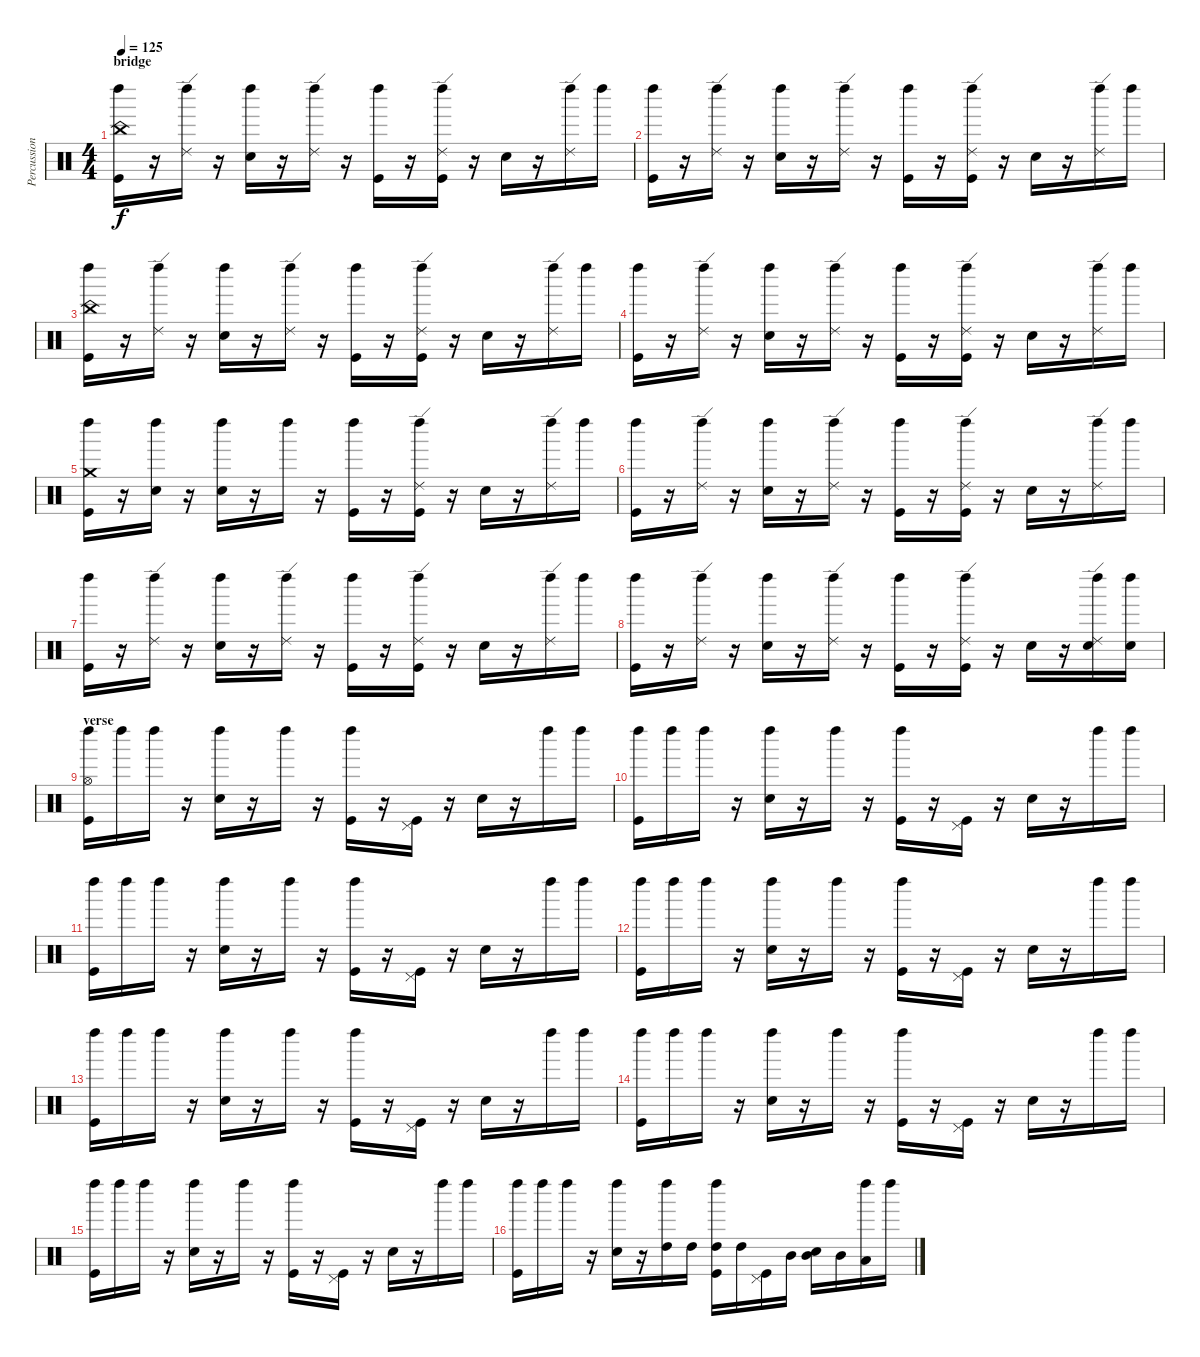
\track ("Percussions" "Percussion") {instrument percussion}
\staff {score}
\articulation defaults
\ts (4 4)
\section ("" "bridge")
\tempo 125
\clef neutral
\ks c
("China (hit)" "Left Maraca (hit)" "Kick (hit)").16{dy f} r.16 ("Ride (edge) 2" "Left Maraca (hit)").16 r.16 ("Left Maraca (hit)" "Snare (hit) 2").16 r.16 ("Ride (edge) 2" "Left Maraca (hit)").16 r.16 ("Left Maraca (hit)" "Kick (hit)").16 r.16 ("Ride (edge) 2" "Left Maraca (hit)" "Kick (hit)").16 r.16 "Snare (hit) 2".16 r.16 ("Ride (edge) 2" "Left Maraca (hit)").16 "Left Maraca (hit)".16 |
("Left Maraca (hit)" "Kick (hit)").16 r.16 ("Ride (edge) 2" "Left Maraca (hit)").16 r.16 ("Left Maraca (hit)" "Snare (hit) 2").16 r.16 ("Ride (edge) 2" "Left Maraca (hit)").16 r.16 ("Left Maraca (hit)" "Kick (hit)").16 r.16 ("Ride (edge) 2" "Left Maraca (hit)" "Kick (hit)").16 r.16 "Snare (hit) 2".16 r.16 ("Ride (edge) 2" "Left Maraca (hit)").16 "Left Maraca (hit)".16 |
("China (hit)" "Left Maraca (hit)" "Kick (hit)").16 r.16 ("Ride (edge) 2" "Left Maraca (hit)").16 r.16 ("Left Maraca (hit)" "Snare (hit) 2").16 r.16 ("Ride (edge) 2" "Left Maraca (hit)").16 r.16 ("Left Maraca (hit)" "Kick (hit)").16 r.16 ("Ride (edge) 2" "Left Maraca (hit)" "Kick (hit)").16 r.16 "Snare (hit) 2".16 r.16 ("Ride (edge) 2" "Left Maraca (hit)").16 "Left Maraca (hit)".16 |
("Left Maraca (hit)" "Kick (hit)").16 r.16 ("Ride (edge) 2" "Left Maraca (hit)").16 r.16 ("Left Maraca (hit)" "Snare (hit) 2").16 r.16 ("Ride (edge) 2" "Left Maraca (hit)").16 r.16 ("Left Maraca (hit)" "Kick (hit)").16 r.16 ("Ride (edge) 2" "Left Maraca (hit)" "Kick (hit)").16 r.16 "Snare (hit) 2".16 r.16 ("Ride (edge) 2" "Left Maraca (hit)").16 "Left Maraca (hit)".16 |
("Crash medium (hit)" "Left Maraca (hit)" "Kick (hit)").16 r.16 ("Snare (hit)" "Left Maraca (hit)").16 r.16 ("Left Maraca (hit)" "Snare (hit) 2").16 r.16 "Left Maraca (hit)".16 r.16 ("Left Maraca (hit)" "Kick (hit)").16 r.16 ("Ride (edge) 2" "Left Maraca (hit)" "Kick (hit)").16 r.16 "Snare (hit) 2".16 r.16 ("Ride (edge) 2" "Left Maraca (hit)").16 "Left Maraca (hit)".16 |
("Left Maraca (hit)" "Kick (hit)").16 r.16 ("Ride (edge) 2" "Left Maraca (hit)").16 r.16 ("Left Maraca (hit)" "Snare (hit) 2").16 r.16 ("Ride (edge) 2" "Left Maraca (hit)").16 r.16 ("Left Maraca (hit)" "Kick (hit)").16 r.16 ("Ride (edge) 2" "Left Maraca (hit)" "Kick (hit)").16 r.16 "Snare (hit) 2".16 r.16 ("Ride (edge) 2" "Left Maraca (hit)").16 "Left Maraca (hit)".16 |
("Left Maraca (hit)" "Kick (hit)").16 r.16 ("Ride (edge) 2" "Left Maraca (hit)").16 r.16 ("Left Maraca (hit)" "Snare (hit) 2").16 r.16 ("Ride (edge) 2" "Left Maraca (hit)").16 r.16 ("Left Maraca (hit)" "Kick (hit)").16 r.16 ("Ride (edge) 2" "Left Maraca (hit)" "Kick (hit)").16 r.16 "Snare (hit) 2".16 r.16 ("Ride (edge) 2" "Left Maraca (hit)").16 "Left Maraca (hit)".16 |
("Left Maraca (hit)" "Kick (hit)").16 r.16 ("Ride (edge) 2" "Left Maraca (hit)").16 r.16 ("Left Maraca (hit)" "Snare (hit) 2").16 r.16 ("Ride (edge) 2" "Left Maraca (hit)").16 r.16 ("Left Maraca (hit)" "Kick (hit)").16 r.16 ("Ride (edge) 2" "Left Maraca (hit)" "Kick (hit)").16 r.16 "Snare (hit) 2".16 r.16 ("Ride (edge) 2" "Left Maraca (hit)" "Snare (hit) 2").16 ("Left Maraca (hit)" "Snare (hit) 2").16 |
\section ("" "verse")
("Hi-Hat (open)" "Left Maraca (hit)" "Kick (hit)").16 "Left Maraca (hit)".16 "Left Maraca (hit)".16 r.16 ("Left Maraca (hit)" "Snare (hit) 2").16 r.16 "Left Maraca (hit)".16 r.16 ("Left Maraca (hit)" "Kick (hit)").16 r.16 ("Pedal Hi-Hat (hit)" "Kick (hit)").16 r.16 "Snare (hit) 2".16 r.16 "Left Maraca (hit)".16 "Left Maraca (hit)".16 |
("Left Maraca (hit)" "Kick (hit)").16 "Left Maraca (hit)".16 "Left Maraca (hit)".16 r.16 ("Left Maraca (hit)" "Snare (hit) 2").16 r.16 "Left Maraca (hit)".16 r.16 ("Left Maraca (hit)" "Kick (hit)").16 r.16 ("Pedal Hi-Hat (hit)" "Kick (hit)").16 r.16 "Snare (hit) 2".16 r.16 "Left Maraca (hit)".16 "Left Maraca (hit)".16 |
("Left Maraca (hit)" "Kick (hit)").16 "Left Maraca (hit)".16 "Left Maraca (hit)".16 r.16 ("Left Maraca (hit)" "Snare (hit) 2").16 r.16 "Left Maraca (hit)".16 r.16 ("Left Maraca (hit)" "Kick (hit)").16 r.16 ("Pedal Hi-Hat (hit)" "Kick (hit)").16 r.16 "Snare (hit) 2".16 r.16 "Left Maraca (hit)".16 "Left Maraca (hit)".16 |
("Left Maraca (hit)" "Kick (hit)").16 "Left Maraca (hit)".16 "Left Maraca (hit)".16 r.16 ("Left Maraca (hit)" "Snare (hit) 2").16 r.16 "Left Maraca (hit)".16 r.16 ("Left Maraca (hit)" "Kick (hit)").16 r.16 ("Pedal Hi-Hat (hit)" "Kick (hit)").16 r.16 "Snare (hit) 2".16 r.16 "Left Maraca (hit)".16 "Left Maraca (hit)".16 |
("Left Maraca (hit)" "Kick (hit)").16 "Left Maraca (hit)".16 "Left Maraca (hit)".16 r.16 ("Left Maraca (hit)" "Snare (hit) 2").16 r.16 "Left Maraca (hit)".16 r.16 ("Left Maraca (hit)" "Kick (hit)").16 r.16 ("Pedal Hi-Hat (hit)" "Kick (hit)").16 r.16 "Snare (hit) 2".16 r.16 "Left Maraca (hit)".16 "Left Maraca (hit)".16 |
("Left Maraca (hit)" "Kick (hit)").16 "Left Maraca (hit)".16 "Left Maraca (hit)".16 r.16 ("Left Maraca (hit)" "Snare (hit) 2").16 r.16 "Left Maraca (hit)".16 r.16 ("Left Maraca (hit)" "Kick (hit)").16 r.16 ("Pedal Hi-Hat (hit)" "Kick (hit)").16 r.16 "Snare (hit) 2".16 r.16 "Left Maraca (hit)".16 "Left Maraca (hit)".16 |
("Left Maraca (hit)" "Kick (hit)").16 "Left Maraca (hit)".16 "Left Maraca (hit)".16 r.16 ("Left Maraca (hit)" "Snare (hit) 2").16 r.16 "Left Maraca (hit)".16 r.16 ("Left Maraca (hit)" "Kick (hit)").16 r.16 ("Pedal Hi-Hat (hit)" "Kick (hit)").16 r.16 "Snare (hit) 2".16 r.16 "Left Maraca (hit)".16 "Left Maraca (hit)".16 |
("Left Maraca (hit)" "Kick (hit)").16 "Left Maraca (hit)".16 "Left Maraca (hit)".16 r.16 ("Left Maraca (hit)" "Snare (hit) 2").16 r.16 ("Left Maraca (hit)" "High Tom (hit)").16 "High Tom (hit)".16 ("Left Maraca (hit)" "High Tom (hit)" "Kick (hit)").16 "High Tom (hit)".16 ("Pedal Hi-Hat (hit)" "Kick (hit)").16 "Mid Tom (hit)".16 ("Snare (hit) 2" "Mid Tom (hit)").16 "Mid Tom (hit)".16 ("Left Maraca (hit)" "Low Tom (hit)").16 "Left Maraca (hit)".16
